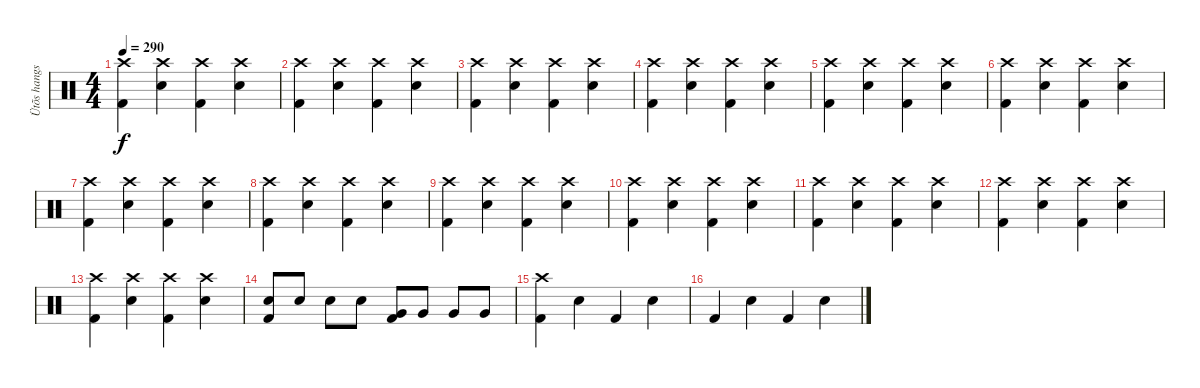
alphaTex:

\track ("Ütõs hangszer" "Ütõs hangs") {instrument percussion}
\staff {score}
\articulation defaults
\ts (4 4)
\tempo 290
\clef neutral
\ks c
("Crash high (hit)" "Kick (hit) 2").4{dy f} ("Crash high (hit)" "Snare (hit) 2").4 ("Crash high (hit)" "Kick (hit) 2").4 ("Crash high (hit)" "Snare (hit) 2").4 |
("Crash high (hit)" "Kick (hit) 2").4 ("Crash high (hit)" "Snare (hit) 2").4 ("Crash high (hit)" "Kick (hit) 2").4 ("Crash high (hit)" "Snare (hit) 2").4 |
("Crash high (hit)" "Kick (hit) 2").4 ("Crash high (hit)" "Snare (hit) 2").4 ("Crash high (hit)" "Kick (hit) 2").4 ("Crash high (hit)" "Snare (hit) 2").4 |
("Crash high (hit)" "Kick (hit) 2").4 ("Crash high (hit)" "Snare (hit) 2").4 ("Crash high (hit)" "Kick (hit) 2").4 ("Crash high (hit)" "Snare (hit) 2").4 |
("Crash high (hit)" "Kick (hit) 2").4 ("Crash high (hit)" "Snare (hit) 2").4 ("Crash high (hit)" "Kick (hit) 2").4 ("Crash high (hit)" "Snare (hit) 2").4 |
("Crash high (hit)" "Kick (hit) 2").4 ("Crash high (hit)" "Snare (hit) 2").4 ("Crash high (hit)" "Kick (hit) 2").4 ("Crash high (hit)" "Snare (hit) 2").4 |
("Crash high (hit)" "Kick (hit) 2").4 ("Crash high (hit)" "Snare (hit) 2").4 ("Crash high (hit)" "Kick (hit) 2").4 ("Crash high (hit)" "Snare (hit) 2").4 |
("Crash high (hit)" "Kick (hit) 2").4 ("Crash high (hit)" "Snare (hit) 2").4 ("Crash high (hit)" "Kick (hit) 2").4 ("Crash high (hit)" "Snare (hit) 2").4 |
("Crash high (hit)" "Kick (hit) 2").4 ("Crash high (hit)" "Snare (hit) 2").4 ("Crash high (hit)" "Kick (hit) 2").4 ("Crash high (hit)" "Snare (hit) 2").4 |
("Crash high (hit)" "Kick (hit) 2").4 ("Crash high (hit)" "Snare (hit) 2").4 ("Crash high (hit)" "Kick (hit) 2").4 ("Crash high (hit)" "Snare (hit) 2").4 |
("Crash high (hit)" "Kick (hit) 2").4 ("Crash high (hit)" "Snare (hit) 2").4 ("Crash high (hit)" "Kick (hit) 2").4 ("Crash high (hit)" "Snare (hit) 2").4 |
("Crash high (hit)" "Kick (hit) 2").4 ("Crash high (hit)" "Snare (hit) 2").4 ("Crash high (hit)" "Kick (hit) 2").4 ("Crash high (hit)" "Snare (hit) 2").4 |
("Crash high (hit)" "Kick (hit) 2").4 ("Crash high (hit)" "Snare (hit) 2").4 ("Crash high (hit)" "Kick (hit) 2").4 ("Crash high (hit)" "Snare (hit) 2").4 |
("Snare (hit) 2" "Kick (hit) 2").8 "Snare (hit) 2".8 "Snare (hit) 2".8 "Snare (hit) 2".8 ("Very Low Tom (hit)" "Kick (hit) 2").8 "Very Low Tom (hit)".8 "Very Low Tom (hit)".8 "Very Low Tom (hit)".8 |
("Crash high (hit)" "Kick (hit) 2").4 "Snare (hit) 2".4 "Kick (hit) 2".4 "Snare (hit) 2".4 |
"Kick (hit) 2".4 "Snare (hit) 2".4 "Kick (hit) 2".4 "Snare (hit) 2".4
